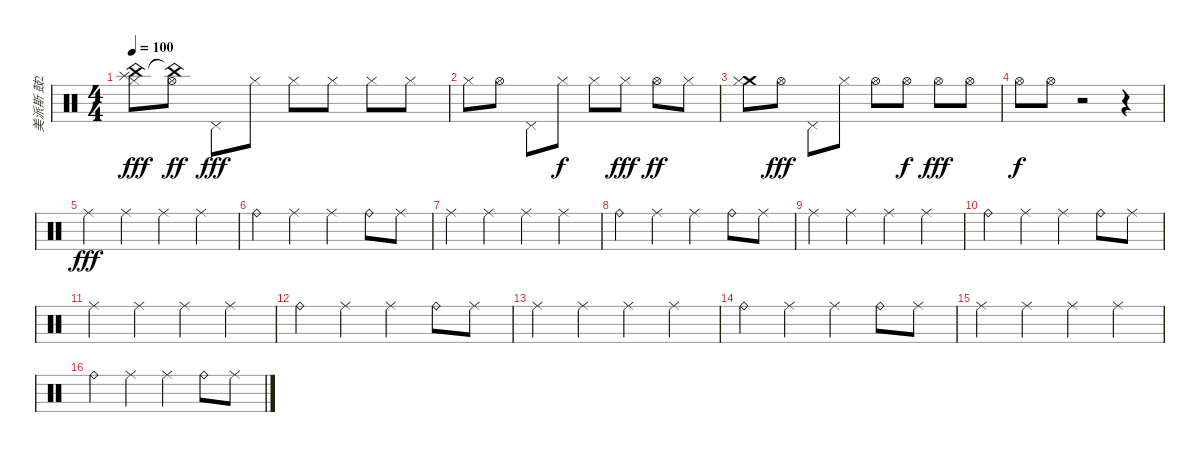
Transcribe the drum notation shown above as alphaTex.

\track ("美派斯 鼓2" "美派斯 鼓2") {instrument percussion}
\staff {score}
\articulation defaults
\ts (4 4)
\tempo 100
\clef neutral
\ks c
("Splash (hit)" "China (hit)" "Hi-Hat (closed)").8{dy fff} ("China (hit)"{t} "Hi-Hat (open)").8{dy ff} "Pedal Hi-Hat (hit)".8{dy fff} "Hi-Hat (closed)".8 "Hi-Hat (closed)".8 "Hi-Hat (closed)".8 "Hi-Hat (closed)".8 "Hi-Hat (closed)".8 |
"Hi-Hat (closed)".8 "Hi-Hat (open)".8 "Pedal Hi-Hat (hit)".8 "Hi-Hat (closed)".8{dy f} "Hi-Hat (closed)".8 "Hi-Hat (closed)".8{dy fff} "Hi-Hat (open)".8{dy ff} "Hi-Hat (closed)".8 |
("Crash medium (hit)" "Hi-Hat (closed)").8 "Hi-Hat (open)".8{dy fff} "Pedal Hi-Hat (hit)".8 "Hi-Hat (closed)".8 "Hi-Hat (open)".8 "Hi-Hat (open)".8{dy f} "Hi-Hat (open)".8{dy fff} "Hi-Hat (open)".8 |
"Hi-Hat (open)".8{dy f} "Hi-Hat (open)".8 r.2 r.4 |
"Ride (middle)".4{dy fff} "Ride (middle)".4 "Ride (middle)".4 "Ride (middle)".4 |
"Ride (bell)".4 "Ride (middle)".4 "Ride (middle)".4 "Ride (bell)".8 "Ride (middle)".8 |
"Ride (middle)".4 "Ride (middle)".4 "Ride (middle)".4 "Ride (middle)".4 |
"Ride (bell)".4 "Ride (middle)".4 "Ride (middle)".4 "Ride (bell)".8 "Ride (middle)".8 |
"Ride (middle)".4 "Ride (middle)".4 "Ride (middle)".4 "Ride (middle)".4 |
"Ride (bell)".4 "Ride (middle)".4 "Ride (middle)".4 "Ride (bell)".8 "Ride (middle)".8 |
"Ride (middle)".4 "Ride (middle)".4 "Ride (middle)".4 "Ride (middle)".4 |
"Ride (bell)".4 "Ride (middle)".4 "Ride (middle)".4 "Ride (bell)".8 "Ride (middle)".8 |
"Ride (middle)".4 "Ride (middle)".4 "Ride (middle)".4 "Ride (middle)".4 |
"Ride (bell)".4 "Ride (middle)".4 "Ride (middle)".4 "Ride (bell)".8 "Ride (middle)".8 |
"Ride (middle)".4 "Ride (middle)".4 "Ride (middle)".4 "Ride (middle)".4 |
"Ride (bell)".4 "Ride (middle)".4 "Ride (middle)".4 "Ride (bell)".8 "Ride (middle)".8
